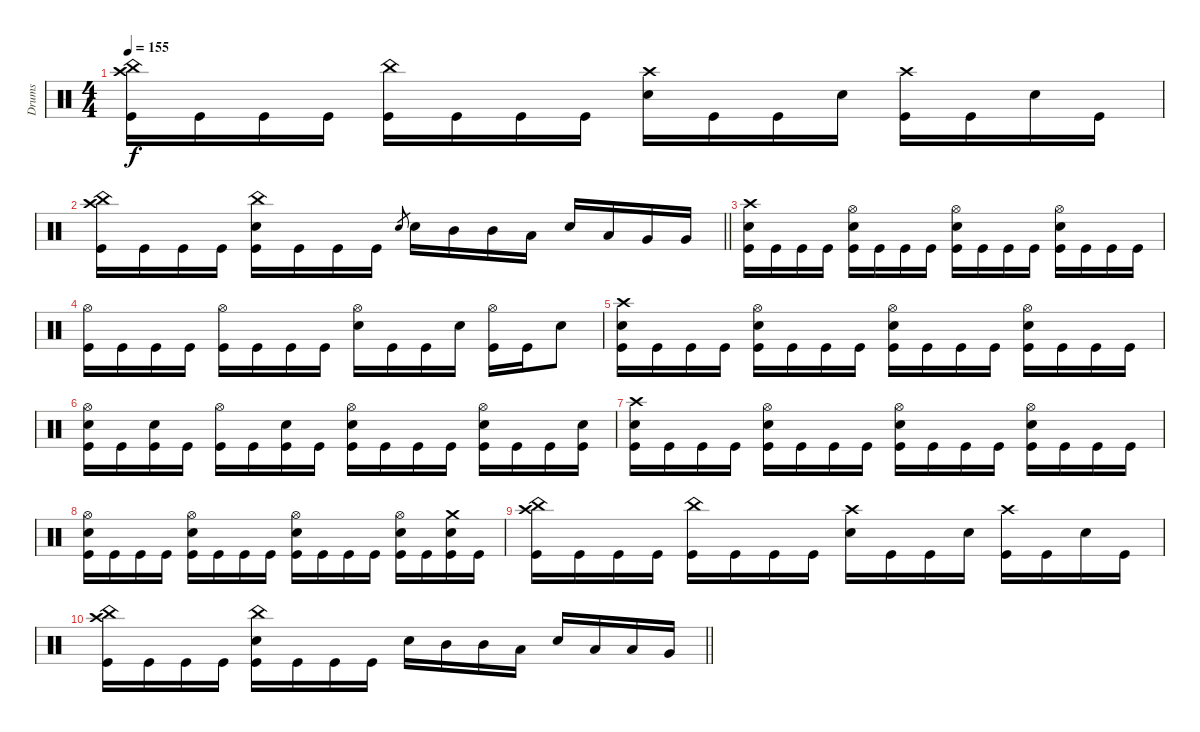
\track ("Drums" "Drums") {instrument percussion}
\staff
\articulation defaults
\ts (4 4)
\tempo 155
\clef neutral
\ks c
("China (hit)" "Crash high (hit)" "Kick (hit)").16{dy f} "Kick (hit)".16 "Kick (hit)".16 "Kick (hit)".16 ("China (hit)" "Kick (hit)").16 "Kick (hit)".16 "Kick (hit)".16 "Kick (hit)".16 ("Crash high (hit)" "Electric Snare (hit)").16 "Kick (hit)".16 "Kick (hit)".16 "Electric Snare (hit)".16 ("Crash high (hit)" "Kick (hit)").16 "Kick (hit)".16 "Electric Snare (hit)".16 "Kick (hit)".16 |
\barLineRight lightlight
("China (hit)" "Crash high (hit)" "Kick (hit)").16 "Kick (hit)".16 "Kick (hit)".16 "Kick (hit)".16 ("China (hit)" "Electric Snare (hit)" "Kick (hit)").16 "Kick (hit)".16 "Kick (hit)".16 "Kick (hit)".16 "Electric Snare (hit)".8{gr} "Electric Snare (hit)".16 "Mid Tom (hit)".16 "Mid Tom (hit)".16 "Low Tom (hit)".16 "Electric Snare (hit)".16 "Low Tom (hit)".16 "Very Low Tom (hit)".16 "Very Low Tom (hit)".16 |
("Crash high (hit)" "Electric Snare (hit)" "Kick (hit)").16 "Kick (hit)".16 "Kick (hit)".16 "Kick (hit)".16 ("Hi-Hat (open)" "Electric Snare (hit)" "Kick (hit)").16 "Kick (hit)".16 "Kick (hit)".16 "Kick (hit)".16 ("Hi-Hat (open)" "Electric Snare (hit)" "Kick (hit)").16 "Kick (hit)".16 "Kick (hit)".16 "Kick (hit)".16 ("Hi-Hat (open)" "Electric Snare (hit)" "Kick (hit)").16 "Kick (hit)".16 "Kick (hit)".16 "Kick (hit)".16 |
("Hi-Hat (open)" "Kick (hit)").16 "Kick (hit)".16 "Kick (hit)".16 "Kick (hit)".16 ("Hi-Hat (open)" "Kick (hit)").16 "Kick (hit)".16 "Kick (hit)".16 "Kick (hit)".16 ("Hi-Hat (open)" "Electric Snare (hit)").16 "Kick (hit)".16 "Kick (hit)".16 "Electric Snare (hit)".16 ("Hi-Hat (open)" "Kick (hit)").16 "Kick (hit)".16 "Electric Snare (hit)".8 |
("Crash high (hit)" "Electric Snare (hit)" "Kick (hit)").16 "Kick (hit)".16 "Kick (hit)".16 "Kick (hit)".16 ("Hi-Hat (open)" "Electric Snare (hit)" "Kick (hit)").16 "Kick (hit)".16 "Kick (hit)".16 "Kick (hit)".16 ("Hi-Hat (open)" "Electric Snare (hit)" "Kick (hit)").16 "Kick (hit)".16 "Kick (hit)".16 "Kick (hit)".16 ("Hi-Hat (open)" "Electric Snare (hit)" "Kick (hit)").16 "Kick (hit)".16 "Kick (hit)".16 "Kick (hit)".16 |
("Hi-Hat (open)" "Electric Snare (hit)" "Kick (hit)").16 "Kick (hit)".16 ("Electric Snare (hit)" "Kick (hit)").16 "Kick (hit)".16 ("Hi-Hat (open)" "Kick (hit)").16 "Kick (hit)".16 ("Electric Snare (hit)" "Kick (hit)").16 "Kick (hit)".16 ("Hi-Hat (open)" "Electric Snare (hit)" "Kick (hit)").16 "Kick (hit)".16 "Kick (hit)".16 "Kick (hit)".16 ("Hi-Hat (open)" "Electric Snare (hit)" "Kick (hit)").16 "Kick (hit)".16 "Kick (hit)".16 ("Electric Snare (hit)" "Kick (hit)").16 |
("Crash high (hit)" "Electric Snare (hit)" "Kick (hit)").16 "Kick (hit)".16 "Kick (hit)".16 "Kick (hit)".16 ("Hi-Hat (open)" "Electric Snare (hit)" "Kick (hit)").16 "Kick (hit)".16 "Kick (hit)".16 "Kick (hit)".16 ("Hi-Hat (open)" "Electric Snare (hit)" "Kick (hit)").16 "Kick (hit)".16 "Kick (hit)".16 "Kick (hit)".16 ("Hi-Hat (open)" "Electric Snare (hit)" "Kick (hit)").16 "Kick (hit)".16 "Kick (hit)".16 "Kick (hit)".16 |
("Hi-Hat (open)" "Electric Snare (hit)" "Kick (hit)").16 "Kick (hit)".16 "Kick (hit)".16 "Kick (hit)".16 ("Hi-Hat (open)" "Electric Snare (hit)" "Kick (hit)").16 "Kick (hit)".16 "Kick (hit)".16 "Kick (hit)".16 ("Hi-Hat (open)" "Electric Snare (hit)" "Kick (hit)").16 "Kick (hit)".16 "Kick (hit)".16 "Kick (hit)".16 ("Hi-Hat (open)" "Electric Snare (hit)" "Kick (hit)").16 "Kick (hit)".16 ("Crash medium (hit)" "Electric Snare (hit)" "Kick (hit)").16 "Kick (hit)".16 |
("China (hit)" "Crash high (hit)" "Kick (hit)").16 "Kick (hit)".16 "Kick (hit)".16 "Kick (hit)".16 ("China (hit)" "Kick (hit)").16 "Kick (hit)".16 "Kick (hit)".16 "Kick (hit)".16 ("Crash high (hit)" "Electric Snare (hit)").16 "Kick (hit)".16 "Kick (hit)".16 "Electric Snare (hit)".16 ("Crash high (hit)" "Kick (hit)").16 "Kick (hit)".16 "Electric Snare (hit)".16 "Kick (hit)".16 |
\barLineRight lightlight
("China (hit)" "Crash high (hit)" "Kick (hit)").16 "Kick (hit)".16 "Kick (hit)".16 "Kick (hit)".16 ("China (hit)" "Electric Snare (hit)" "Kick (hit)").16 "Kick (hit)".16 "Kick (hit)".16 "Kick (hit)".16 "Electric Snare (hit)".16 "Mid Tom (hit)".16 "Mid Tom (hit)".16 "Low Tom (hit)".16 "Electric Snare (hit)".16 "Low Tom (hit)".16 "Low Tom (hit)".16 "Very Low Tom (hit)".16
